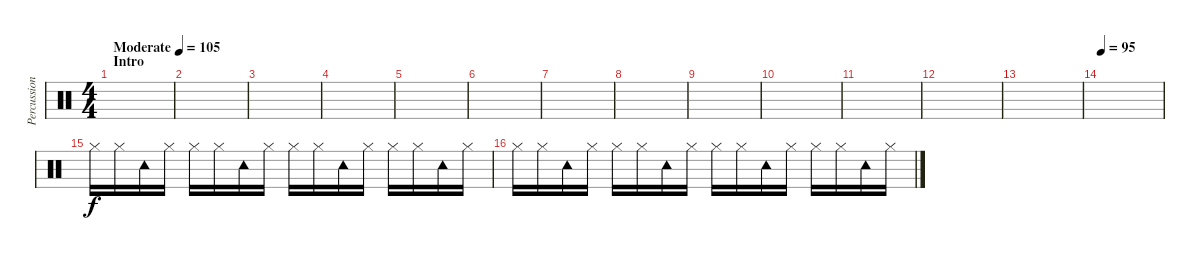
\track ("Percussion" "Percussion") {instrument percussion}
\staff {score}
\articulation defaults
\ts (4 4)
\section ("" "Intro")
\tempo (105 "Moderate")
\clef neutral
\ks c
|
|
|
|
|
|
|
|
|
|
|
|
|
\tempo 95
|
"Hi-Hat (closed)".16 "Hi-Hat (closed)".16 "Tambourine (hit)".16 "Hi-Hat (closed)".16 "Hi-Hat (closed)".16 "Hi-Hat (closed)".16 "Tambourine (hit)".16 "Hi-Hat (closed)".16 "Hi-Hat (closed)".16 "Hi-Hat (closed)".16 "Tambourine (hit)".16 "Hi-Hat (closed)".16 "Hi-Hat (closed)".16 "Hi-Hat (closed)".16 "Tambourine (hit)".16 "Hi-Hat (closed)".16 |
"Hi-Hat (closed)".16 "Hi-Hat (closed)".16 "Tambourine (hit)".16 "Hi-Hat (closed)".16 "Hi-Hat (closed)".16 "Hi-Hat (closed)".16 "Tambourine (hit)".16 "Hi-Hat (closed)".16 "Hi-Hat (closed)".16 "Hi-Hat (closed)".16 "Tambourine (hit)".16 "Hi-Hat (closed)".16 "Hi-Hat (closed)".16 "Hi-Hat (closed)".16 "Tambourine (hit)".16 "Hi-Hat (closed)".16
